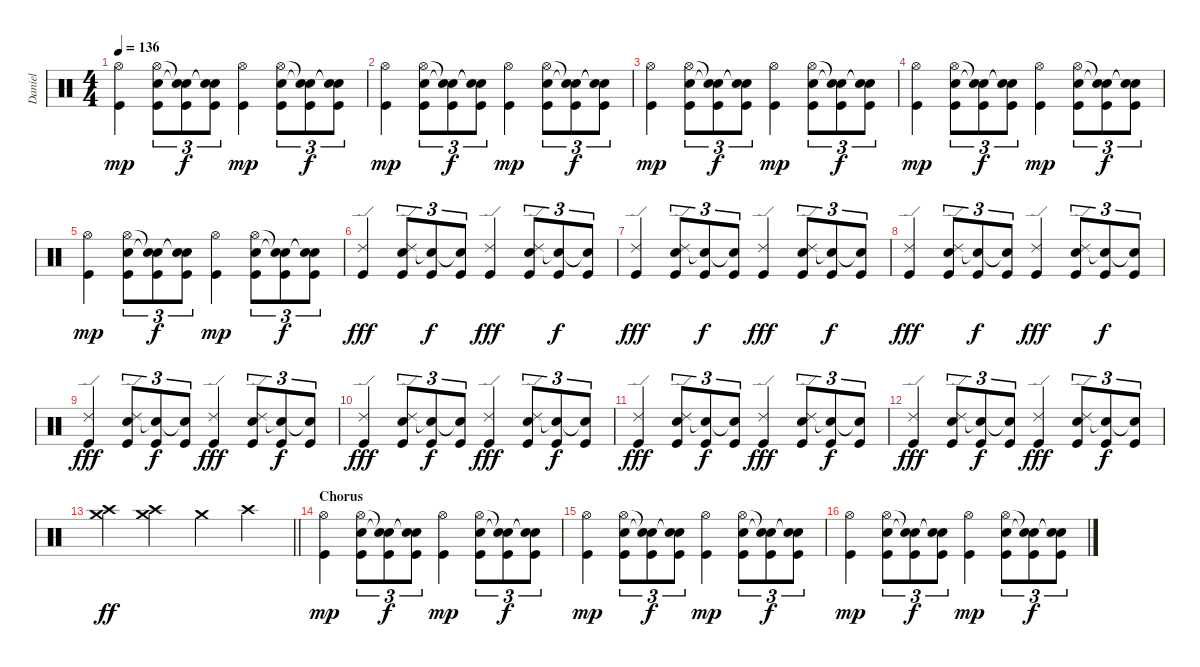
\track ("Daniel" "Daniel") {instrument percussion}
\staff {score}
\articulation defaults
\ts (4 4)
\tempo 136
\clef neutral
\ks c
("Hi-Hat (open)" "Kick (hit)").4{dy mp} ("Hi-Hat (open)" "Snare (hit) 2" "Kick (hit)").8{tu (3 2)} ("Snare (hit)"{t} "Snare (hit)"{t} "Kick (hit)").8{tu (3 2) dy f} ("Snare (hit)"{t} "Snare (hit)"{t} "Kick (hit)").8{tu (3 2)} ("Hi-Hat (open)" "Kick (hit)").4{dy mp} ("Hi-Hat (open)" "Snare (hit) 2" "Kick (hit)").8{tu (3 2)} ("Snare (hit)"{t} "Snare (hit)"{t} "Kick (hit)").8{tu (3 2) dy f} ("Snare (hit)"{t} "Snare (hit)"{t} "Kick (hit)").8{tu (3 2)} |
("Hi-Hat (open)" "Kick (hit)").4{dy mp} ("Hi-Hat (open)" "Snare (hit) 2" "Kick (hit)").8{tu (3 2)} ("Snare (hit)"{t} "Snare (hit)"{t} "Kick (hit)").8{tu (3 2) dy f} ("Snare (hit)"{t} "Snare (hit)"{t} "Kick (hit)").8{tu (3 2)} ("Hi-Hat (open)" "Kick (hit)").4{dy mp} ("Hi-Hat (open)" "Snare (hit) 2" "Kick (hit)").8{tu (3 2)} ("Snare (hit)"{t} "Snare (hit)"{t} "Kick (hit)").8{tu (3 2) dy f} ("Snare (hit)"{t} "Snare (hit)"{t} "Kick (hit)").8{tu (3 2)} |
("Hi-Hat (open)" "Kick (hit)").4{dy mp} ("Hi-Hat (open)" "Snare (hit) 2" "Kick (hit)").8{tu (3 2)} ("Snare (hit)"{t} "Snare (hit)"{t} "Kick (hit)").8{tu (3 2) dy f} ("Snare (hit)"{t} "Snare (hit)"{t} "Kick (hit)").8{tu (3 2)} ("Hi-Hat (open)" "Kick (hit)").4{dy mp} ("Hi-Hat (open)" "Snare (hit) 2" "Kick (hit)").8{tu (3 2)} ("Snare (hit)"{t} "Snare (hit)"{t} "Kick (hit)").8{tu (3 2) dy f} ("Snare (hit)"{t} "Snare (hit)"{t} "Kick (hit)").8{tu (3 2)} |
("Hi-Hat (open)" "Kick (hit)").4{dy mp} ("Hi-Hat (open)" "Snare (hit) 2" "Kick (hit)").8{tu (3 2)} ("Snare (hit)"{t} "Snare (hit)"{t} "Kick (hit)").8{tu (3 2) dy f} ("Snare (hit)"{t} "Snare (hit)"{t} "Kick (hit)").8{tu (3 2)} ("Hi-Hat (open)" "Kick (hit)").4{dy mp} ("Hi-Hat (open)" "Snare (hit) 2" "Kick (hit)").8{tu (3 2)} ("Snare (hit)"{t} "Snare (hit)"{t} "Kick (hit)").8{tu (3 2) dy f} ("Snare (hit)"{t} "Snare (hit)"{t} "Kick (hit)").8{tu (3 2)} |
("Hi-Hat (open)" "Kick (hit)").4{dy mp} ("Hi-Hat (open)" "Snare (hit) 2" "Kick (hit)").8{tu (3 2)} ("Snare (hit)"{t} "Snare (hit)"{t} "Kick (hit)").8{tu (3 2) dy f} ("Snare (hit)"{t} "Snare (hit)"{t} "Kick (hit)").8{tu (3 2)} ("Hi-Hat (open)" "Kick (hit)").4{dy mp} ("Hi-Hat (open)" "Snare (hit) 2" "Kick (hit)").8{tu (3 2)} ("Snare (hit)"{t} "Snare (hit)"{t} "Kick (hit)").8{tu (3 2) dy f} ("Snare (hit)"{t} "Snare (hit)"{t} "Kick (hit)").8{tu (3 2)} |
("Ride (edge) 2" "Kick (hit)").4{dy fff} ("Ride (edge) 2" "Snare (hit) 2" "Kick (hit)").8{tu (3 2)} ("Snare (hit)"{t} "Kick (hit)").8{tu (3 2) dy f} ("Snare (hit)"{t} "Kick (hit)").8{tu (3 2)} ("Ride (edge) 2" "Kick (hit)").4{dy fff} ("Ride (edge) 2" "Snare (hit) 2" "Kick (hit)").8{tu (3 2)} ("Snare (hit)"{t} "Kick (hit)").8{tu (3 2) dy f} ("Snare (hit)"{t} "Kick (hit)").8{tu (3 2)} |
("Ride (edge) 2" "Kick (hit)").4{dy fff} ("Ride (edge) 2" "Snare (hit) 2" "Kick (hit)").8{tu (3 2)} ("Snare (hit)"{t} "Kick (hit)").8{tu (3 2) dy f} ("Snare (hit)"{t} "Kick (hit)").8{tu (3 2)} ("Ride (edge) 2" "Kick (hit)").4{dy fff} ("Ride (edge) 2" "Snare (hit) 2" "Kick (hit)").8{tu (3 2)} ("Snare (hit)"{t} "Kick (hit)").8{tu (3 2) dy f} ("Snare (hit)"{t} "Kick (hit)").8{tu (3 2)} |
("Ride (edge) 2" "Kick (hit)").4{dy fff} ("Ride (edge) 2" "Snare (hit) 2" "Kick (hit)").8{tu (3 2)} ("Snare (hit)"{t} "Kick (hit)").8{tu (3 2) dy f} ("Snare (hit)"{t} "Kick (hit)").8{tu (3 2)} ("Ride (edge) 2" "Kick (hit)").4{dy fff} ("Ride (edge) 2" "Snare (hit) 2" "Kick (hit)").8{tu (3 2)} ("Snare (hit)"{t} "Kick (hit)").8{tu (3 2) dy f} ("Snare (hit)"{t} "Kick (hit)").8{tu (3 2)} |
("Ride (edge) 2" "Kick (hit)").4{dy fff} ("Ride (edge) 2" "Snare (hit) 2" "Kick (hit)").8{tu (3 2)} ("Snare (hit)"{t} "Kick (hit)").8{tu (3 2) dy f} ("Snare (hit)"{t} "Kick (hit)").8{tu (3 2)} ("Ride (edge) 2" "Kick (hit)").4{dy fff} ("Ride (edge) 2" "Snare (hit) 2" "Kick (hit)").8{tu (3 2)} ("Snare (hit)"{t} "Kick (hit)").8{tu (3 2) dy f} ("Snare (hit)"{t} "Kick (hit)").8{tu (3 2)} |
("Ride (edge) 2" "Kick (hit)").4{dy fff} ("Ride (edge) 2" "Snare (hit) 2" "Kick (hit)").8{tu (3 2)} ("Snare (hit)"{t} "Kick (hit)").8{tu (3 2) dy f} ("Snare (hit)"{t} "Kick (hit)").8{tu (3 2)} ("Ride (edge) 2" "Kick (hit)").4{dy fff} ("Ride (edge) 2" "Snare (hit) 2" "Kick (hit)").8{tu (3 2)} ("Snare (hit)"{t} "Kick (hit)").8{tu (3 2) dy f} ("Snare (hit)"{t} "Kick (hit)").8{tu (3 2)} |
("Ride (edge) 2" "Kick (hit)").4{dy fff} ("Ride (edge) 2" "Snare (hit) 2" "Kick (hit)").8{tu (3 2)} ("Snare (hit)"{t} "Kick (hit)").8{tu (3 2) dy f} ("Snare (hit)"{t} "Kick (hit)").8{tu (3 2)} ("Ride (edge) 2" "Kick (hit)").4{dy fff} ("Ride (edge) 2" "Snare (hit) 2" "Kick (hit)").8{tu (3 2)} ("Snare (hit)"{t} "Kick (hit)").8{tu (3 2) dy f} ("Snare (hit)"{t} "Kick (hit)").8{tu (3 2)} |
("Ride (edge) 2" "Kick (hit)").4{dy fff} ("Ride (edge) 2" "Snare (hit) 2" "Kick (hit)").8{tu (3 2)} ("Snare (hit)"{t} "Kick (hit)").8{tu (3 2) dy f} ("Snare (hit)"{t} "Kick (hit)").8{tu (3 2)} ("Ride (edge) 2" "Kick (hit)").4{dy fff} ("Ride (edge) 2" "Snare (hit) 2" "Kick (hit)").8{tu (3 2)} ("Snare (hit)"{t} "Kick (hit)").8{tu (3 2) dy f} ("Snare (hit)"{t} "Kick (hit)").8{tu (3 2)} |
\barLineRight lightlight
("Crash high (hit)" "Crash medium (hit)").4{dy ff} ("Crash high (hit)" "Crash medium (hit)").4 "Crash medium (hit)".4 "Crash high (hit)".4 |
\section ("" "Chorus")
("Hi-Hat (open)" "Kick (hit)").4{dy mp} ("Hi-Hat (open)" "Snare (hit) 2" "Kick (hit)").8{tu (3 2)} ("Snare (hit)"{t} "Snare (hit)"{t} "Kick (hit)").8{tu (3 2) dy f} ("Snare (hit)"{t} "Snare (hit)"{t} "Kick (hit)").8{tu (3 2)} ("Hi-Hat (open)" "Kick (hit)").4{dy mp} ("Hi-Hat (open)" "Snare (hit) 2" "Kick (hit)").8{tu (3 2)} ("Snare (hit)"{t} "Snare (hit)"{t} "Kick (hit)").8{tu (3 2) dy f} ("Snare (hit)"{t} "Snare (hit)"{t} "Kick (hit)").8{tu (3 2)} |
("Hi-Hat (open)" "Kick (hit)").4{dy mp} ("Hi-Hat (open)" "Snare (hit) 2" "Kick (hit)").8{tu (3 2)} ("Snare (hit)"{t} "Snare (hit)"{t} "Kick (hit)").8{tu (3 2) dy f} ("Snare (hit)"{t} "Snare (hit)"{t} "Kick (hit)").8{tu (3 2)} ("Hi-Hat (open)" "Kick (hit)").4{dy mp} ("Hi-Hat (open)" "Snare (hit) 2" "Kick (hit)").8{tu (3 2)} ("Snare (hit)"{t} "Snare (hit)"{t} "Kick (hit)").8{tu (3 2) dy f} ("Snare (hit)"{t} "Snare (hit)"{t} "Kick (hit)").8{tu (3 2)} |
("Hi-Hat (open)" "Kick (hit)").4{dy mp} ("Hi-Hat (open)" "Snare (hit) 2" "Kick (hit)").8{tu (3 2)} ("Snare (hit)"{t} "Snare (hit)"{t} "Kick (hit)").8{tu (3 2) dy f} ("Snare (hit)"{t} "Snare (hit)"{t} "Kick (hit)").8{tu (3 2)} ("Hi-Hat (open)" "Kick (hit)").4{dy mp} ("Hi-Hat (open)" "Snare (hit) 2" "Kick (hit)").8{tu (3 2)} ("Snare (hit)"{t} "Snare (hit)"{t} "Kick (hit)").8{tu (3 2) dy f} ("Snare (hit)"{t} "Snare (hit)"{t} "Kick (hit)").8{tu (3 2)}
